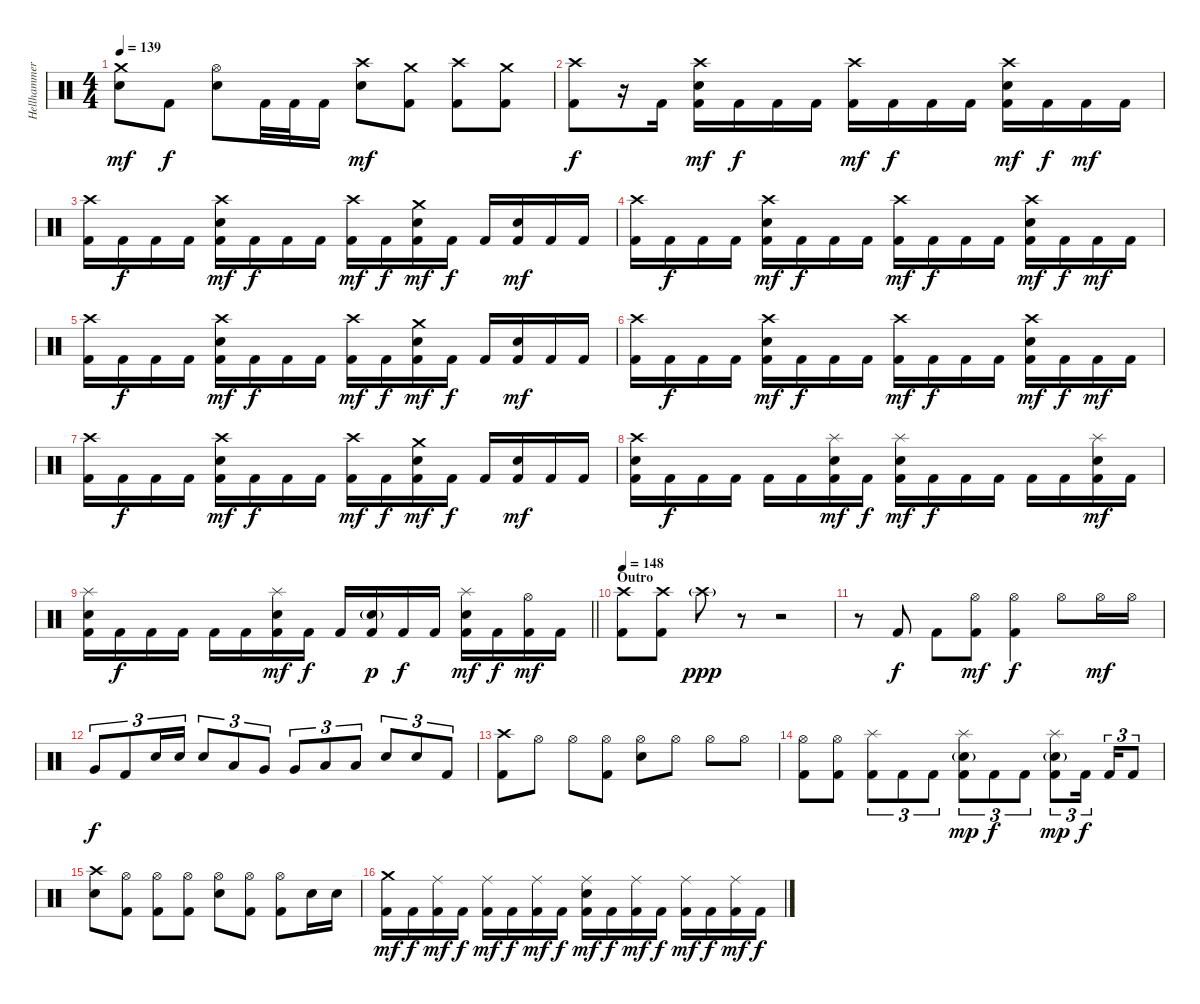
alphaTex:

\track ("Hellhammer" "Hellhammer") {instrument percussion}
\staff {score}
\articulation defaults
\ts (4 4)
\tempo 139
\clef neutral
\ks c
("Crash medium (hit)" "Snare (hit) 2").8{dy mf} "Kick (hit) 2".8{dy f} ("Hi-Hat (open)" "Snare (hit) 2").8 "Kick (hit) 2".32 "Kick (hit) 2".32 "Kick (hit) 2".16 ("Crash high (hit)" "Snare (hit) 2").8{dy mf} ("Crash medium (hit)" "Kick (hit) 2").8 ("Crash high (hit)" "Kick (hit) 2").8 ("Crash medium (hit)" "Kick (hit) 2").8 |
("Crash high (hit)" "Kick (hit) 2").8{dy f} r.16 "Kick (hit) 2".16 ("Crash high (hit)" "Snare (hit) 2" "Kick (hit) 2").16{dy mf} "Kick (hit) 2".16{dy f} "Kick (hit) 2".16 "Kick (hit) 2".16 ("Crash high (hit)" "Kick (hit) 2").16{dy mf} "Kick (hit) 2".16{dy f} "Kick (hit) 2".16 "Kick (hit) 2".16 ("Crash high (hit)" "Snare (hit) 2" "Kick (hit) 2").16{dy mf} "Kick (hit) 2".16{dy f} "Kick (hit) 2".16{dy mf} "Kick (hit) 2".16 |
("Crash high (hit)" "Kick (hit) 2").16 "Kick (hit) 2".16{dy f} "Kick (hit) 2".16 "Kick (hit) 2".16 ("Crash high (hit)" "Snare (hit) 2" "Kick (hit) 2").16{dy mf} "Kick (hit) 2".16{dy f} "Kick (hit) 2".16 "Kick (hit) 2".16 ("Crash high (hit)" "Kick (hit) 2").16{dy mf} "Kick (hit) 2".16{dy f} ("Crash medium (hit)" "Snare (hit) 2" "Kick (hit) 2").16{dy mf} "Kick (hit) 2".16{dy f} "Kick (hit) 2".16 ("Snare (hit) 2" "Kick (hit) 2").16{dy mf} "Kick (hit) 2".16 "Kick (hit) 2".16 |
("Crash high (hit)" "Kick (hit) 2").16 "Kick (hit) 2".16{dy f} "Kick (hit) 2".16 "Kick (hit) 2".16 ("Crash high (hit)" "Snare (hit) 2" "Kick (hit) 2").16{dy mf} "Kick (hit) 2".16{dy f} "Kick (hit) 2".16 "Kick (hit) 2".16 ("Crash high (hit)" "Kick (hit) 2").16{dy mf} "Kick (hit) 2".16{dy f} "Kick (hit) 2".16 "Kick (hit) 2".16 ("Crash high (hit)" "Snare (hit) 2" "Kick (hit) 2").16{dy mf} "Kick (hit) 2".16{dy f} "Kick (hit) 2".16{dy mf} "Kick (hit) 2".16 |
("Crash high (hit)" "Kick (hit) 2").16 "Kick (hit) 2".16{dy f} "Kick (hit) 2".16 "Kick (hit) 2".16 ("Crash high (hit)" "Snare (hit) 2" "Kick (hit) 2").16{dy mf} "Kick (hit) 2".16{dy f} "Kick (hit) 2".16 "Kick (hit) 2".16 ("Crash high (hit)" "Kick (hit) 2").16{dy mf} "Kick (hit) 2".16{dy f} ("Crash medium (hit)" "Snare (hit) 2" "Kick (hit) 2").16{dy mf} "Kick (hit) 2".16{dy f} "Kick (hit) 2".16 ("Snare (hit) 2" "Kick (hit) 2").16{dy mf} "Kick (hit) 2".16 "Kick (hit) 2".16 |
("Crash high (hit)" "Kick (hit) 2").16 "Kick (hit) 2".16{dy f} "Kick (hit) 2".16 "Kick (hit) 2".16 ("Crash high (hit)" "Snare (hit) 2" "Kick (hit) 2").16{dy mf} "Kick (hit) 2".16{dy f} "Kick (hit) 2".16 "Kick (hit) 2".16 ("Crash high (hit)" "Kick (hit) 2").16{dy mf} "Kick (hit) 2".16{dy f} "Kick (hit) 2".16 "Kick (hit) 2".16 ("Crash high (hit)" "Snare (hit) 2" "Kick (hit) 2").16{dy mf} "Kick (hit) 2".16{dy f} "Kick (hit) 2".16{dy mf} "Kick (hit) 2".16 |
("Crash high (hit)" "Kick (hit) 2").16 "Kick (hit) 2".16{dy f} "Kick (hit) 2".16 "Kick (hit) 2".16 ("Crash high (hit)" "Snare (hit) 2" "Kick (hit) 2").16{dy mf} "Kick (hit) 2".16{dy f} "Kick (hit) 2".16 "Kick (hit) 2".16 ("Crash high (hit)" "Kick (hit) 2").16{dy mf} "Kick (hit) 2".16{dy f} ("Crash medium (hit)" "Snare (hit) 2" "Kick (hit) 2").16{dy mf} "Kick (hit) 2".16{dy f} "Kick (hit) 2".16 ("Snare (hit) 2" "Kick (hit) 2").16{dy mf} "Kick (hit) 2".16 "Kick (hit) 2".16 |
("Crash high (hit)" "Snare (hit) 2" "Kick (hit) 2").16 "Kick (hit) 2".16{dy f} "Kick (hit) 2".16 "Kick (hit) 2".16 "Kick (hit) 2".16 "Kick (hit) 2".16 ("Splash (hit)" "Snare (hit) 2" "Kick (hit) 2").16{dy mf} "Kick (hit) 2".16{dy f} ("Splash (hit)" "Snare (hit) 2" "Kick (hit) 2").16{dy mf} "Kick (hit) 2".16{dy f} "Kick (hit) 2".16 "Kick (hit) 2".16 "Kick (hit) 2".16 "Kick (hit) 2".16 ("Splash (hit)" "Snare (hit) 2" "Kick (hit) 2").16{dy mf} "Kick (hit) 2".16 |
\barLineRight lightlight
("Splash (hit)" "Snare (hit) 2" "Kick (hit) 2").16 "Kick (hit) 2".16{dy f} "Kick (hit) 2".16 "Kick (hit) 2".16 "Kick (hit) 2".16 "Kick (hit) 2".16 ("Splash (hit)" "Snare (hit) 2" "Kick (hit) 2").16{dy mf} "Kick (hit) 2".16{dy f} "Kick (hit) 2".16 ("Snare (hit) 2"{g} "Kick (hit) 2").16{dy p} "Kick (hit) 2".16{dy f} "Kick (hit) 2".16 ("Splash (hit)" "Snare (hit) 2" "Kick (hit) 2").16{dy mf} "Kick (hit) 2".16{dy f} ("Hi-Hat (open)" "Kick (hit) 2").16{dy mf} "Kick (hit) 2".16 |
\section ("" "Outro")
\tempo 148
("Crash high (hit)" "Kick (hit) 2").8 ("Crash high (hit)" "Kick (hit) 2").8 "Crash high (hit)"{g}.8{dy ppp} r.8 r.2 |
r.8 "Kick (hit) 2".8{dy f} "Kick (hit) 2".8 ("Hi-Hat (open)" "Kick (hit) 2").8{dy mf} ("Hi-Hat (open)" "Kick (hit) 2").4{dy f} "Hi-Hat (open)".8 "Hi-Hat (open)".16{dy mf} "Hi-Hat (open)".16 |
"Very Low Tom (hit)".8{tu (3 2) dy f} "Kick (hit) 2".8{tu (3 2)} "Snare (hit) 2".16{tu (3 2)} "Snare (hit) 2".16{tu (3 2)} "Snare (hit) 2".8{tu (3 2)} "Low Tom (hit)".8{tu (3 2)} "Very Low Tom (hit)".8{tu (3 2)} "Very Low Tom (hit)".8{tu (3 2)} "Low Floor Tom (hit)".8{tu (3 2)} "Low Floor Tom (hit)".8{tu (3 2)} "Snare (hit) 2".8{tu (3 2)} "Snare (hit) 2".8{tu (3 2)} "Kick (hit) 2".8{tu (3 2)} |
("Crash high (hit)" "Kick (hit) 2").8 "Hi-Hat (open)".8 "Hi-Hat (open)".8 ("Hi-Hat (open)" "Kick (hit) 2").8 ("Hi-Hat (open)" "Snare (hit) 2").8 "Hi-Hat (open)".8 "Hi-Hat (open)".8 "Hi-Hat (open)".8 |
("Hi-Hat (open)" "Kick (hit) 2").8 ("Hi-Hat (open)" "Kick (hit) 2").8 ("Splash (hit)" "Kick (hit) 2").8{tu (3 2)} "Kick (hit) 2".8{tu (3 2)} "Kick (hit) 2".8{tu (3 2)} ("Splash (hit)" "Snare (hit) 2"{g} "Kick (hit) 2").8{tu (3 2) dy mp} "Kick (hit) 2".8{tu (3 2) dy f} "Kick (hit) 2".8{tu (3 2)} ("Splash (hit)" "Snare (hit) 2"{g} "Kick (hit) 2").8{tu (3 2) dy mp} "Kick (hit) 2".16{tu (3 2) dy f beam splitsecondary} "Kick (hit) 2".16{tu (3 2)} "Kick (hit) 2".8{tu (3 2)} |
("Crash high (hit)" "Snare (hit) 2").8 ("Hi-Hat (open)" "Kick (hit) 2").8 ("Hi-Hat (open)" "Kick (hit) 2").8 ("Hi-Hat (open)" "Kick (hit) 2").8 ("Hi-Hat (open)" "Snare (hit) 2").8 ("Hi-Hat (open)" "Kick (hit) 2").8 ("Hi-Hat (open)" "Kick (hit) 2").8 "Snare (hit) 2".16 "Snare (hit) 2".16 |
("Crash medium (hit)" "Kick (hit) 2").16{dy mf} "Kick (hit) 2".16{dy f} ("Ride (middle)" "Kick (hit) 2").16{dy mf} "Kick (hit) 2".16{dy f} ("Ride (middle)" "Kick (hit) 2").16{dy mf} "Kick (hit) 2".16{dy f} ("Ride (middle)" "Kick (hit) 2").16{dy mf} "Kick (hit) 2".16{dy f} ("Ride (middle)" "Snare (hit) 2" "Kick (hit) 2").16{dy mf} "Kick (hit) 2".16{dy f} ("Ride (middle)" "Kick (hit) 2").16{dy mf} "Kick (hit) 2".16{dy f} ("Ride (middle)" "Kick (hit) 2").16{dy mf} "Kick (hit) 2".16{dy f} ("Ride (middle)" "Kick (hit) 2").16{dy mf} "Kick (hit) 2".16{dy f}
